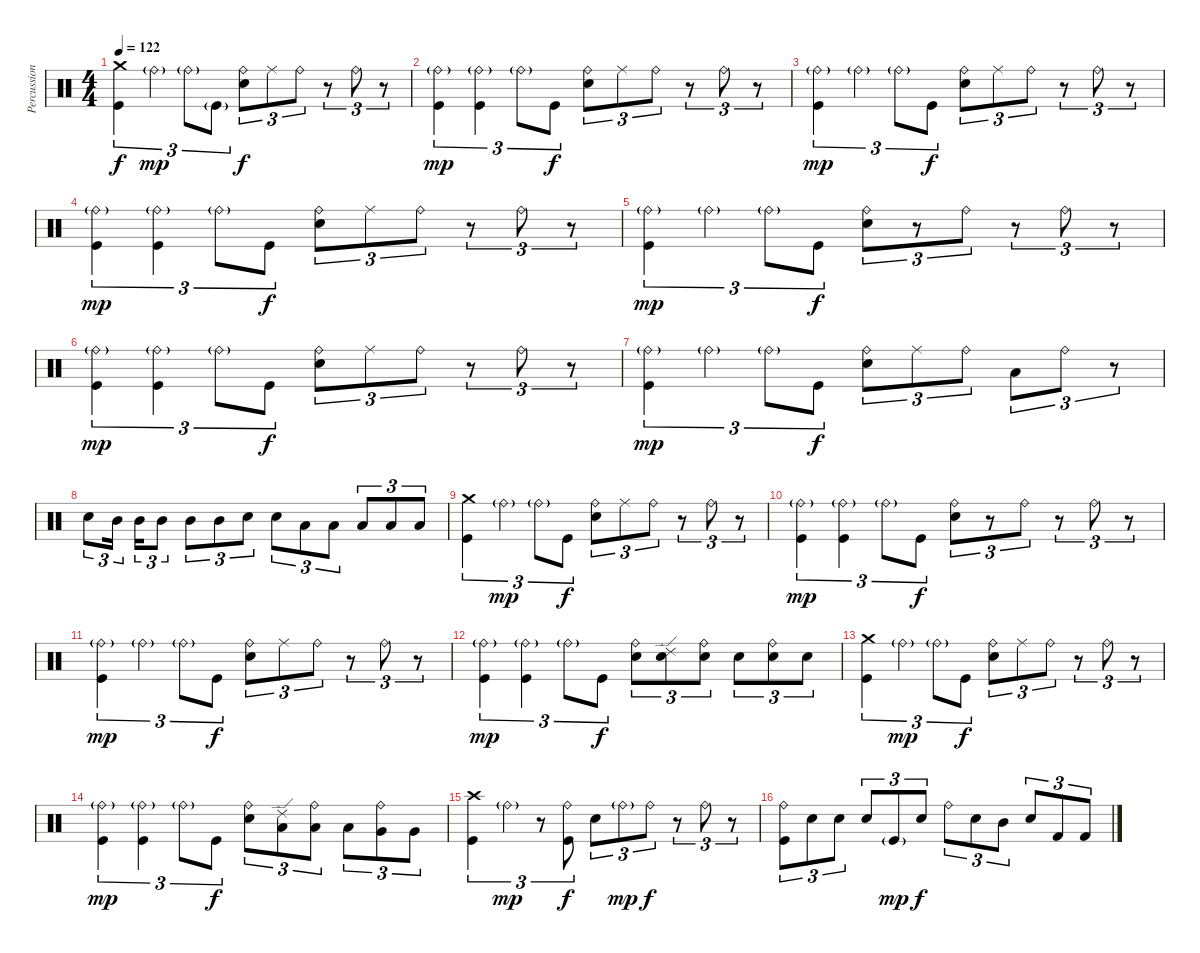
\track ("Percussions" "Percussion") {instrument percussion}
\staff {score}
\articulation defaults
\ts (4 4)
\tempo 122
\clef neutral
\ks c
("Crash medium (hit)" "Kick (hit)").4{tu (3 2) dy f} "Ride (bell)"{g}.4{tu (3 2) dy mp} "Ride (bell)"{g}.8{tu (3 2)} "Kick (hit)"{g}.8{tu (3 2)} ("Ride (bell)" "Electric Snare (hit)").8{tu (3 2) dy f} "Ride (middle)".8{tu (3 2)} "Ride (bell)".8{tu (3 2)} r.8{tu (3 2)} "Ride (bell)".8{tu (3 2)} r.8{tu (3 2)} |
("Ride (bell)"{g} "Kick (hit)").4{tu (3 2) dy mp} ("Ride (bell)"{g} "Kick (hit)").4{tu (3 2)} "Ride (bell)"{g}.8{tu (3 2)} "Kick (hit)".8{tu (3 2) dy f} ("Ride (bell)" "Electric Snare (hit)").8{tu (3 2)} "Ride (middle)".8{tu (3 2)} "Ride (bell)".8{tu (3 2)} r.8{tu (3 2)} "Ride (bell)".8{tu (3 2)} r.8{tu (3 2)} |
("Ride (bell)"{g} "Kick (hit)").4{tu (3 2) dy mp} "Ride (bell)"{g}.4{tu (3 2)} "Ride (bell)"{g}.8{tu (3 2)} "Kick (hit)".8{tu (3 2) dy f} ("Ride (bell)" "Electric Snare (hit)").8{tu (3 2)} "Ride (middle)".8{tu (3 2)} "Ride (bell)".8{tu (3 2)} r.8{tu (3 2)} "Ride (bell)".8{tu (3 2)} r.8{tu (3 2)} |
("Ride (bell)"{g} "Kick (hit)").4{tu (3 2) dy mp} ("Ride (bell)"{g} "Kick (hit)").4{tu (3 2)} "Ride (bell)"{g}.8{tu (3 2)} "Kick (hit)".8{tu (3 2) dy f} ("Ride (bell)" "Electric Snare (hit)").8{tu (3 2)} "Ride (middle)".8{tu (3 2)} "Ride (bell)".8{tu (3 2)} r.8{tu (3 2)} "Ride (bell)".8{tu (3 2)} r.8{tu (3 2)} |
("Ride (bell)"{g} "Kick (hit)").4{tu (3 2) dy mp} "Ride (bell)"{g}.4{tu (3 2)} "Ride (bell)"{g}.8{tu (3 2)} "Kick (hit)".8{tu (3 2) dy f} ("Ride (bell)" "Electric Snare (hit)").8{tu (3 2)} r.8{tu (3 2)} "Ride (bell)".8{tu (3 2)} r.8{tu (3 2)} "Ride (bell)".8{tu (3 2)} r.8{tu (3 2)} |
("Ride (bell)"{g} "Kick (hit)").4{tu (3 2) dy mp} ("Ride (bell)"{g} "Kick (hit)").4{tu (3 2)} "Ride (bell)"{g}.8{tu (3 2)} "Kick (hit)".8{tu (3 2) dy f} ("Ride (bell)" "Electric Snare (hit)").8{tu (3 2)} "Ride (middle)".8{tu (3 2)} "Ride (bell)".8{tu (3 2)} r.8{tu (3 2)} "Ride (bell)".8{tu (3 2)} r.8{tu (3 2)} |
("Ride (bell)"{g} "Kick (hit)").4{tu (3 2) dy mp} "Ride (bell)"{g}.4{tu (3 2)} "Ride (bell)"{g}.8{tu (3 2)} "Kick (hit)".8{tu (3 2) dy f} ("Ride (bell)" "Electric Snare (hit)").8{tu (3 2)} "Ride (middle)".8{tu (3 2)} "Ride (bell)".8{tu (3 2)} "Low Tom (hit)".8{tu (3 2)} "Ride (bell)".8{tu (3 2)} r.8{tu (3 2)} |
"Electric Snare (hit)".8{tu (3 2)} "Mid Tom (hit)".16{tu (3 2) beam splitsecondary} "Mid Tom (hit)".16{tu (3 2)} "Mid Tom (hit)".8{tu (3 2)} "Mid Tom (hit)".8{tu (3 2)} "Mid Tom (hit)".8{tu (3 2)} "Electric Snare (hit)".8{tu (3 2)} "Electric Snare (hit)".8{tu (3 2)} "Low Tom (hit)".8{tu (3 2)} "Low Tom (hit)".8{tu (3 2)} "Low Tom (hit)".8{tu (3 2)} "Low Tom (hit)".8{tu (3 2)} "Low Tom (hit)".8{tu (3 2)} |
("Crash medium (hit)" "Kick (hit)").4{tu (3 2)} "Ride (bell)"{g}.4{tu (3 2) dy mp} "Ride (bell)"{g}.8{tu (3 2)} "Kick (hit)".8{tu (3 2) dy f} ("Ride (bell)" "Electric Snare (hit)").8{tu (3 2)} "Ride (middle)".8{tu (3 2)} "Ride (bell)".8{tu (3 2)} r.8{tu (3 2)} "Ride (bell)".8{tu (3 2)} r.8{tu (3 2)} |
("Ride (bell)"{g} "Kick (hit)").4{tu (3 2) dy mp} ("Ride (bell)"{g} "Kick (hit)").4{tu (3 2)} "Ride (bell)"{g}.8{tu (3 2)} "Kick (hit)".8{tu (3 2) dy f} ("Ride (bell)" "Electric Snare (hit)").8{tu (3 2)} r.8{tu (3 2)} "Ride (bell)".8{tu (3 2)} r.8{tu (3 2)} "Ride (bell)".8{tu (3 2)} r.8{tu (3 2)} |
("Ride (bell)"{g} "Kick (hit)").4{tu (3 2) dy mp} "Ride (bell)"{g}.4{tu (3 2)} "Ride (bell)"{g}.8{tu (3 2)} "Kick (hit)".8{tu (3 2) dy f} ("Ride (bell)" "Electric Snare (hit)").8{tu (3 2)} "Ride (middle)".8{tu (3 2)} "Ride (bell)".8{tu (3 2)} r.8{tu (3 2)} "Ride (bell)".8{tu (3 2)} r.8{tu (3 2)} |
("Ride (bell)"{g} "Kick (hit)").4{tu (3 2) dy mp} ("Ride (bell)"{g} "Kick (hit)").4{tu (3 2)} "Ride (bell)"{g}.8{tu (3 2)} "Kick (hit)".8{tu (3 2) dy f} ("Ride (bell)" "Electric Snare (hit)").8{tu (3 2)} ("Ride (edge) 2" "Electric Snare (hit)").8{tu (3 2)} ("Ride (bell)" "Electric Snare (hit)").8{tu (3 2)} "Electric Snare (hit)".8{tu (3 2)} ("Ride (bell)" "Electric Snare (hit)").8{tu (3 2)} "Electric Snare (hit)".8{tu (3 2)} |
("Crash medium (hit)" "Kick (hit)").4{tu (3 2)} "Ride (bell)"{g}.4{tu (3 2) dy mp} "Ride (bell)"{g}.8{tu (3 2)} "Kick (hit)".8{tu (3 2) dy f} ("Ride (bell)" "Electric Snare (hit)").8{tu (3 2)} "Ride (middle)".8{tu (3 2)} "Ride (bell)".8{tu (3 2)} r.8{tu (3 2)} "Ride (bell)".8{tu (3 2)} r.8{tu (3 2)} |
("Ride (bell)"{g} "Kick (hit)").4{tu (3 2) dy mp} ("Ride (bell)"{g} "Kick (hit)").4{tu (3 2)} "Ride (bell)"{g}.8{tu (3 2)} "Kick (hit)".8{tu (3 2) dy f} ("Ride (bell)" "Electric Snare (hit)").8{tu (3 2)} ("Ride (edge) 2" "Low Tom (hit)").8{tu (3 2)} ("Ride (bell)" "Low Tom (hit)").8{tu (3 2)} "Low Floor Tom (hit)".8{tu (3 2)} ("Ride (bell)" "Very Low Tom (hit)").8{tu (3 2)} "Very Low Tom (hit)".8{tu (3 2)} |
("Crash high (hit)" "Kick (hit)").4{tu (3 2)} "Ride (bell)"{g}.4{tu (3 2) dy mp} r.8{tu (3 2)} ("Ride (bell)" "Kick (hit)").8{tu (3 2) dy f} "Electric Snare (hit)".8{tu (3 2)} "Ride (bell)"{g}.8{tu (3 2) dy mp} "Ride (bell)".8{tu (3 2) dy f} r.8{tu (3 2)} "Ride (bell)".8{tu (3 2)} r.8{tu (3 2)} |
("Ride (bell)" "Kick (hit)").8{tu (3 2)} "Electric Snare (hit)".8{tu (3 2)} "Electric Snare (hit)".8{tu (3 2)} "Electric Snare (hit)".8{tu (3 2)} "Kick (hit)"{g}.8{tu (3 2) dy mp} "Electric Snare (hit)".8{tu (3 2) dy f} "Ride (bell)".8{tu (3 2)} "Electric Snare (hit)".8{tu (3 2)} "Mid Tom (hit)".8{tu (3 2)} "Electric Snare (hit)".8{tu (3 2)} "Kick (hit) 2".8{tu (3 2)} "Kick (hit) 2".8{tu (3 2)}
